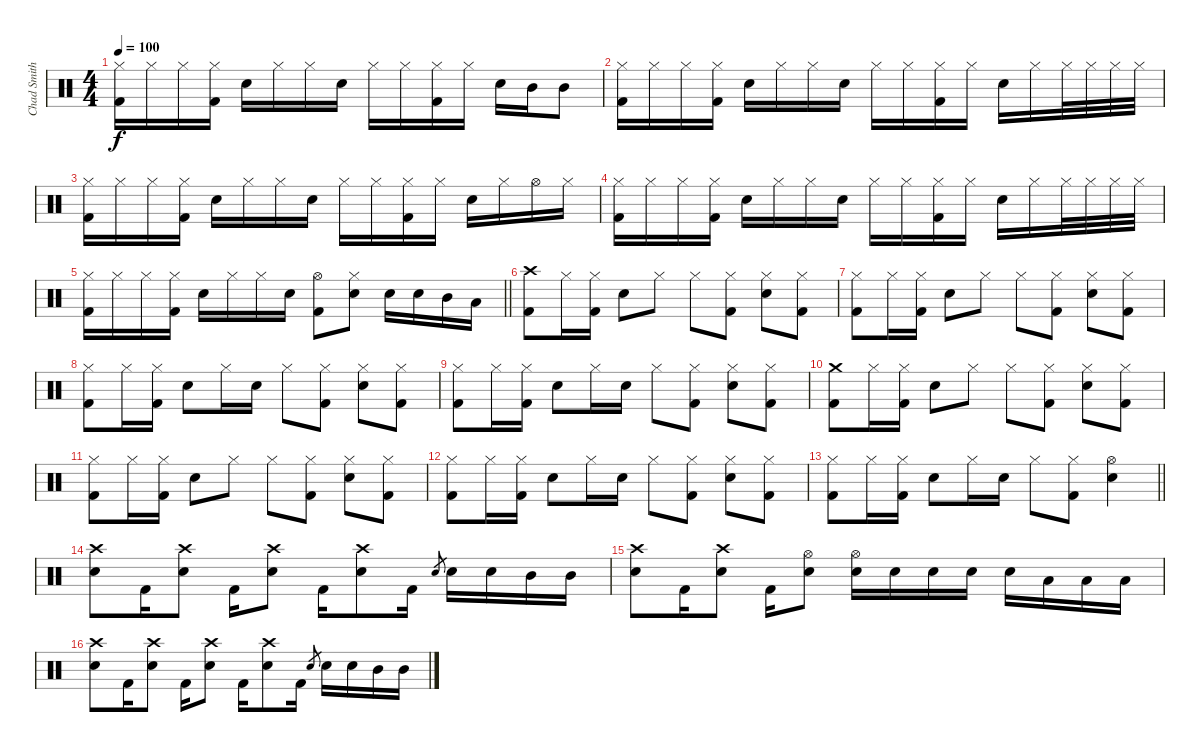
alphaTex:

\track ("Chad Smith" "Chad Smith") {instrument percussion}
\staff {score}
\articulation defaults
\ts (4 4)
\tempo 100
\clef neutral
\ks c
("Hi-Hat (closed)" "Kick (hit) 2").16{dy f} "Hi-Hat (closed)".16 "Hi-Hat (closed)".16 ("Hi-Hat (closed)" "Kick (hit) 2").16 "Snare (hit) 2".16 "Hi-Hat (closed)".16 "Hi-Hat (closed)".16 "Snare (hit) 2".16 "Hi-Hat (closed)".16 "Hi-Hat (closed)".16 ("Hi-Hat (closed)" "Kick (hit) 2").16 "Hi-Hat (closed)".16 "Snare (hit) 2".16 "Mid Tom (hit)".16 "Mid Tom (hit)".8 |
("Hi-Hat (closed)" "Kick (hit) 2").16 "Hi-Hat (closed)".16 "Hi-Hat (closed)".16 ("Hi-Hat (closed)" "Kick (hit) 2").16 "Snare (hit) 2".16 "Hi-Hat (closed)".16 "Hi-Hat (closed)".16 "Snare (hit) 2".16 "Hi-Hat (closed)".16 "Hi-Hat (closed)".16 ("Hi-Hat (closed)" "Kick (hit) 2").16 "Hi-Hat (closed)".16 "Snare (hit) 2".16 "Hi-Hat (closed)".16 "Hi-Hat (closed)".32 "Hi-Hat (closed)".32 "Hi-Hat (closed)".32 "Hi-Hat (closed)".32 |
("Hi-Hat (closed)" "Kick (hit) 2").16 "Hi-Hat (closed)".16 "Hi-Hat (closed)".16 ("Hi-Hat (closed)" "Kick (hit) 2").16 "Snare (hit) 2".16 "Hi-Hat (closed)".16 "Hi-Hat (closed)".16 "Snare (hit) 2".16 "Hi-Hat (closed)".16 "Hi-Hat (closed)".16 ("Hi-Hat (closed)" "Kick (hit) 2").16 "Hi-Hat (closed)".16 "Snare (hit) 2".16 "Hi-Hat (closed)".16 "Hi-Hat (open)".16 "Hi-Hat (closed)".16 |
("Hi-Hat (closed)" "Kick (hit) 2").16 "Hi-Hat (closed)".16 "Hi-Hat (closed)".16 ("Hi-Hat (closed)" "Kick (hit) 2").16 "Snare (hit) 2".16 "Hi-Hat (closed)".16 "Hi-Hat (closed)".16 "Snare (hit) 2".16 "Hi-Hat (closed)".16 "Hi-Hat (closed)".16 ("Hi-Hat (closed)" "Kick (hit) 2").16 "Hi-Hat (closed)".16 "Snare (hit) 2".16 "Hi-Hat (closed)".16 "Hi-Hat (closed)".32 "Hi-Hat (closed)".32 "Hi-Hat (closed)".32 "Hi-Hat (closed)".32 |
\barLineRight lightlight
("Hi-Hat (closed)" "Kick (hit) 2").16 "Hi-Hat (closed)".16 "Hi-Hat (closed)".16 ("Hi-Hat (closed)" "Kick (hit) 2").16 "Snare (hit) 2".16 "Hi-Hat (closed)".16 "Hi-Hat (closed)".16 "Snare (hit) 2".16 ("Hi-Hat (open)" "Kick (hit) 2").8 ("Hi-Hat (closed)" "Snare (hit) 2").8 "Snare (hit) 2".16 "Snare (hit) 2".16 "Mid Tom (hit)".16 "Low Tom (hit)".16 |
("Crash high (hit)" "Kick (hit) 2").8 "Hi-Hat (closed)".16 ("Hi-Hat (closed)" "Kick (hit) 2").16 "Snare (hit) 2".8 "Hi-Hat (closed)".8 "Hi-Hat (closed)".8 ("Hi-Hat (closed)" "Kick (hit) 2").8 ("Hi-Hat (closed)" "Snare (hit) 2").8 ("Hi-Hat (closed)" "Kick (hit) 2").8 |
("Hi-Hat (closed)" "Kick (hit) 2").8 "Hi-Hat (closed)".16 ("Hi-Hat (closed)" "Kick (hit) 2").16 "Snare (hit) 2".8 "Hi-Hat (closed)".8 "Hi-Hat (closed)".8 ("Hi-Hat (closed)" "Kick (hit) 2").8 ("Hi-Hat (closed)" "Snare (hit) 2").8 ("Hi-Hat (closed)" "Kick (hit) 2").8 |
("Hi-Hat (closed)" "Kick (hit) 2").8 "Hi-Hat (closed)".16 ("Hi-Hat (closed)" "Kick (hit) 2").16 "Snare (hit) 2".8 "Hi-Hat (closed)".16 "Snare (hit) 2".16 "Hi-Hat (closed)".8 ("Hi-Hat (closed)" "Kick (hit) 2").8 ("Hi-Hat (closed)" "Snare (hit) 2").8 ("Hi-Hat (closed)" "Kick (hit) 2").8 |
("Hi-Hat (closed)" "Kick (hit) 2").8 "Hi-Hat (closed)".16 ("Hi-Hat (closed)" "Kick (hit) 2").16 "Snare (hit) 2".8 "Hi-Hat (closed)".16 "Snare (hit) 2".16 "Hi-Hat (closed)".8 ("Hi-Hat (closed)" "Kick (hit) 2").8 ("Hi-Hat (closed)" "Snare (hit) 2").8 ("Hi-Hat (closed)" "Kick (hit) 2").8 |
("Crash medium (hit)" "Kick (hit) 2").8 "Hi-Hat (closed)".16 ("Hi-Hat (closed)" "Kick (hit) 2").16 "Snare (hit) 2".8 "Hi-Hat (closed)".8 "Hi-Hat (closed)".8 ("Hi-Hat (closed)" "Kick (hit) 2").8 ("Hi-Hat (closed)" "Snare (hit) 2").8 ("Hi-Hat (closed)" "Kick (hit) 2").8 |
("Hi-Hat (closed)" "Kick (hit) 2").8 "Hi-Hat (closed)".16 ("Hi-Hat (closed)" "Kick (hit) 2").16 "Snare (hit) 2".8 "Hi-Hat (closed)".8 "Hi-Hat (closed)".8 ("Hi-Hat (closed)" "Kick (hit) 2").8 ("Hi-Hat (closed)" "Snare (hit) 2").8 ("Hi-Hat (closed)" "Kick (hit) 2").8 |
("Hi-Hat (closed)" "Kick (hit) 2").8 "Hi-Hat (closed)".16 ("Hi-Hat (closed)" "Kick (hit) 2").16 "Snare (hit) 2".8 "Hi-Hat (closed)".16 "Snare (hit) 2".16 "Hi-Hat (closed)".8 ("Hi-Hat (closed)" "Kick (hit) 2").8 ("Hi-Hat (closed)" "Snare (hit) 2").8 ("Hi-Hat (closed)" "Kick (hit) 2").8 |
\barLineRight lightlight
("Hi-Hat (closed)" "Kick (hit) 2").8 "Hi-Hat (closed)".16 ("Hi-Hat (closed)" "Kick (hit) 2").16 "Snare (hit) 2".8 "Hi-Hat (closed)".16 "Snare (hit) 2".16 "Hi-Hat (closed)".8 ("Hi-Hat (closed)" "Kick (hit) 2").8 ("Hi-Hat (open)" "Snare (hit) 2").4 |
("Crash high (hit)" "Snare (hit) 2").8 "Kick (hit) 2".16 ("Crash high (hit)" "Snare (hit) 2").8 "Kick (hit) 2".16 ("Crash high (hit)" "Snare (hit) 2").8 "Kick (hit) 2".16 ("Crash high (hit)" "Snare (hit) 2").8 "Kick (hit) 2".16 "Snare (hit) 2".8{gr} "Snare (hit) 2".16 "Snare (hit) 2".16 "Mid Tom (hit)".16 "Mid Tom (hit)".16 |
("Crash high (hit)" "Snare (hit) 2").8 "Kick (hit) 2".16 ("Crash high (hit)" "Snare (hit) 2").8 "Kick (hit) 2".16 ("Hi-Hat (open)" "Snare (hit) 2").8 ("Hi-Hat (open)" "Snare (hit) 2").16 "Snare (hit) 2".16 "Snare (hit) 2".16 "Snare (hit) 2".16 "Snare (hit) 2".16 "Low Tom (hit)".16 "Low Tom (hit)".16 "Low Tom (hit)".16 |
("Crash high (hit)" "Snare (hit) 2").8 "Kick (hit) 2".16 ("Crash high (hit)" "Snare (hit) 2").8 "Kick (hit) 2".16 ("Crash high (hit)" "Snare (hit) 2").8 "Kick (hit) 2".16 ("Crash high (hit)" "Snare (hit) 2").8 "Kick (hit) 2".16 "Snare (hit) 2".8{gr} "Snare (hit) 2".16 "Snare (hit) 2".16 "Mid Tom (hit)".16 "Mid Tom (hit)".16
